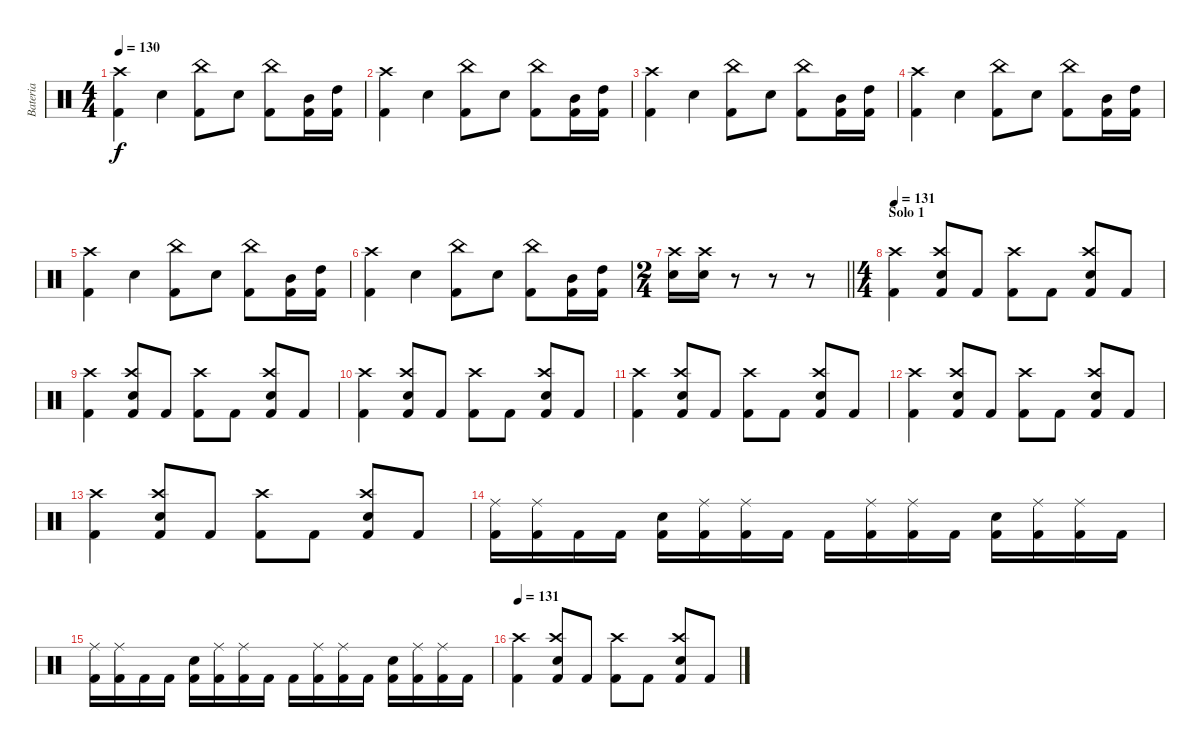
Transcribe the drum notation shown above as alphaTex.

\track ("Bateria" "Bateria") {instrument percussion}
\staff {score}
\articulation defaults
\ts (4 4)
\tempo 130
\clef neutral
\ks c
("Kick (hit) 2" "Crash high (hit)").4{dy f} "Electric Snare (hit)".4 ("China (hit)" "Kick (hit) 2").8 "Electric Snare (hit)".8 ("China (hit)" "Kick (hit) 2").8 ("Mid Tom (hit)" "Kick (hit) 2").16 ("High Tom (hit)" "Kick (hit) 2").16 |
("Kick (hit) 2" "Crash high (hit)").4 "Electric Snare (hit)".4 ("China (hit)" "Kick (hit) 2").8 "Electric Snare (hit)".8 ("China (hit)" "Kick (hit) 2").8 ("Mid Tom (hit)" "Kick (hit) 2").16 ("High Tom (hit)" "Kick (hit) 2").16 |
("Kick (hit) 2" "Crash high (hit)").4 "Electric Snare (hit)".4 ("China (hit)" "Kick (hit) 2").8 "Electric Snare (hit)".8 ("China (hit)" "Kick (hit) 2").8 ("Mid Tom (hit)" "Kick (hit) 2").16 ("High Tom (hit)" "Kick (hit) 2").16 |
("Kick (hit) 2" "Crash high (hit)").4 "Electric Snare (hit)".4 ("China (hit)" "Kick (hit) 2").8 "Electric Snare (hit)".8 ("China (hit)" "Kick (hit) 2").8 ("Mid Tom (hit)" "Kick (hit) 2").16 ("High Tom (hit)" "Kick (hit) 2").16 |
("Kick (hit) 2" "Crash high (hit)").4 "Electric Snare (hit)".4 ("China (hit)" "Kick (hit) 2").8 "Electric Snare (hit)".8 ("China (hit)" "Kick (hit) 2").8 ("Mid Tom (hit)" "Kick (hit) 2").16 ("High Tom (hit)" "Kick (hit) 2").16 |
("Kick (hit) 2" "Crash high (hit)").4 "Electric Snare (hit)".4 ("China (hit)" "Kick (hit) 2").8 "Electric Snare (hit)".8 ("China (hit)" "Kick (hit) 2").8 ("Mid Tom (hit)" "Kick (hit) 2").16 ("High Tom (hit)" "Kick (hit) 2").16 |
\ts (2 4)
\barLineRight lightlight
("Electric Snare (hit)" "Crash high (hit)").16 ("Electric Snare (hit)" "Crash high (hit)").16 r.8 r.8 r.8 |
\ts (4 4)
\section ("" "Solo 1")
\tempo 131
("Crash high (hit)" "Kick (hit) 2").4 ("Crash high (hit)" "Electric Snare (hit)" "Kick (hit) 2").8 "Kick (hit) 2".8 ("Crash high (hit)" "Kick (hit) 2").8 "Kick (hit) 2".8 ("Crash high (hit)" "Electric Snare (hit)" "Kick (hit) 2").8 "Kick (hit) 2".8 |
("Crash high (hit)" "Kick (hit) 2").4 ("Crash high (hit)" "Electric Snare (hit)" "Kick (hit) 2").8 "Kick (hit) 2".8 ("Crash high (hit)" "Kick (hit) 2").8 "Kick (hit) 2".8 ("Crash high (hit)" "Electric Snare (hit)" "Kick (hit) 2").8 "Kick (hit) 2".8 |
("Crash high (hit)" "Kick (hit) 2").4 ("Crash high (hit)" "Electric Snare (hit)" "Kick (hit) 2").8 "Kick (hit) 2".8 ("Crash high (hit)" "Kick (hit) 2").8 "Kick (hit) 2".8 ("Crash high (hit)" "Electric Snare (hit)" "Kick (hit) 2").8 "Kick (hit) 2".8 |
("Crash high (hit)" "Kick (hit) 2").4 ("Crash high (hit)" "Electric Snare (hit)" "Kick (hit) 2").8 "Kick (hit) 2".8 ("Crash high (hit)" "Kick (hit) 2").8 "Kick (hit) 2".8 ("Crash high (hit)" "Electric Snare (hit)" "Kick (hit) 2").8 "Kick (hit) 2".8 |
("Crash high (hit)" "Kick (hit) 2").4 ("Crash high (hit)" "Electric Snare (hit)" "Kick (hit) 2").8 "Kick (hit) 2".8 ("Crash high (hit)" "Kick (hit) 2").8 "Kick (hit) 2".8 ("Crash high (hit)" "Electric Snare (hit)" "Kick (hit) 2").8 "Kick (hit) 2".8 |
("Crash high (hit)" "Kick (hit) 2").4 ("Crash high (hit)" "Electric Snare (hit)" "Kick (hit) 2").8 "Kick (hit) 2".8 ("Crash high (hit)" "Kick (hit) 2").8 "Kick (hit) 2".8 ("Crash high (hit)" "Electric Snare (hit)" "Kick (hit) 2").8 "Kick (hit) 2".8 |
("Ride (middle)" "Kick (hit) 2").16 ("Ride (middle)" "Kick (hit) 2").16 "Kick (hit) 2".16 "Kick (hit) 2".16 ("Electric Snare (hit)" "Kick (hit) 2").16 ("Ride (middle)" "Kick (hit) 2").16 ("Ride (middle)" "Kick (hit) 2").16 "Kick (hit) 2".16 "Kick (hit) 2".16 ("Ride (middle)" "Kick (hit) 2").16 ("Ride (middle)" "Kick (hit) 2").16 "Kick (hit) 2".16 ("Electric Snare (hit)" "Kick (hit) 2").16 ("Ride (middle)" "Kick (hit) 2").16 ("Ride (middle)" "Kick (hit) 2").16 "Kick (hit) 2".16 |
("Ride (middle)" "Kick (hit) 2").16 ("Ride (middle)" "Kick (hit) 2").16 "Kick (hit) 2".16 "Kick (hit) 2".16 ("Electric Snare (hit)" "Kick (hit) 2").16 ("Ride (middle)" "Kick (hit) 2").16 ("Ride (middle)" "Kick (hit) 2").16 "Kick (hit) 2".16 "Kick (hit) 2".16 ("Ride (middle)" "Kick (hit) 2").16 ("Ride (middle)" "Kick (hit) 2").16 "Kick (hit) 2".16 ("Electric Snare (hit)" "Kick (hit) 2").16 ("Ride (middle)" "Kick (hit) 2").16 ("Ride (middle)" "Kick (hit) 2").16 "Kick (hit) 2".16 |
\tempo 131
("Crash high (hit)" "Kick (hit) 2").4 ("Crash high (hit)" "Electric Snare (hit)" "Kick (hit) 2").8 "Kick (hit) 2".8 ("Crash high (hit)" "Kick (hit) 2").8 "Kick (hit) 2".8 ("Crash high (hit)" "Electric Snare (hit)" "Kick (hit) 2").8 "Kick (hit) 2".8
